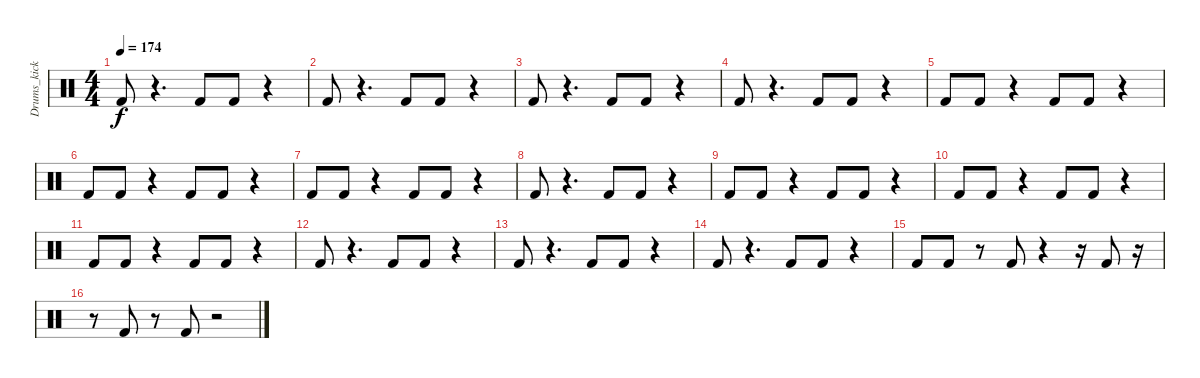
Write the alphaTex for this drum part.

\track ("Drums_kick" "Drums_kick") {instrument percussion}
\staff {score}
\articulation defaults
\ts (4 4)
\tempo 174
\clef neutral
\ks c "Kick (hit) 2".8{dy f}
r.4{d} "Kick (hit) 2".8 "Kick (hit) 2".8 r.4 |
"Kick (hit) 2".8 r.4{d} "Kick (hit) 2".8 "Kick (hit) 2".8 r.4 |
"Kick (hit) 2".8 r.4{d} "Kick (hit) 2".8 "Kick (hit) 2".8 r.4 |
"Kick (hit) 2".8 r.4{d} "Kick (hit) 2".8 "Kick (hit) 2".8 r.4 |
"Kick (hit) 2".8 "Kick (hit) 2".8 r.4 "Kick (hit) 2".8 "Kick (hit) 2".8 r.4 |
"Kick (hit) 2".8 "Kick (hit) 2".8 r.4 "Kick (hit) 2".8 "Kick (hit) 2".8 r.4 |
"Kick (hit) 2".8 "Kick (hit) 2".8 r.4 "Kick (hit) 2".8 "Kick (hit) 2".8 r.4 |
"Kick (hit) 2".8 r.4{d} "Kick (hit) 2".8 "Kick (hit) 2".8 r.4 |
"Kick (hit) 2".8 "Kick (hit) 2".8 r.4 "Kick (hit) 2".8 "Kick (hit) 2".8 r.4 |
"Kick (hit) 2".8 "Kick (hit) 2".8 r.4 "Kick (hit) 2".8 "Kick (hit) 2".8 r.4 |
"Kick (hit) 2".8 "Kick (hit) 2".8 r.4 "Kick (hit) 2".8 "Kick (hit) 2".8 r.4 |
"Kick (hit) 2".8 r.4{d} "Kick (hit) 2".8 "Kick (hit) 2".8 r.4 |
"Kick (hit) 2".8 r.4{d} "Kick (hit) 2".8 "Kick (hit) 2".8 r.4 |
"Kick (hit) 2".8 r.4{d} "Kick (hit) 2".8 "Kick (hit) 2".8 r.4 |
"Kick (hit) 2".8 "Kick (hit) 2".8 r.8 "Kick (hit) 2".8 r.4 r.16 "Kick (hit) 2".8 r.16 |
r.8 "Kick (hit) 2".8 r.8 "Kick (hit) 2".8 r.2
